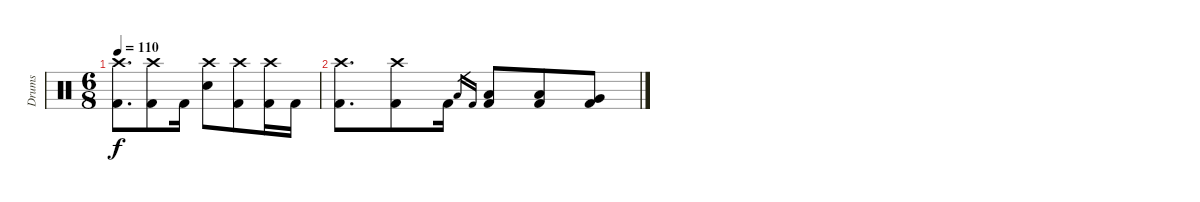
\track ("Drums" "Drums") {instrument percussion}
\staff {score}
\articulation defaults
\ts (6 8)
\tempo 110
\clef neutral
\ks c
("Crash high (hit)" "Kick (hit) 2").8{d dy f} ("Crash high (hit)" "Kick (hit) 2").8 "Kick (hit) 2".16 ("Crash high (hit)" "Electric Snare (hit)").8 ("Crash high (hit)" "Kick (hit) 2").8 ("Crash high (hit)" "Kick (hit) 2").16 "Kick (hit) 2".16 |
("Crash high (hit)" "Kick (hit) 2").8{d} ("Crash high (hit)" "Kick (hit) 2").8 "Kick (hit) 2".16 "Low Tom (hit)".16{gr} "Kick (hit) 2".16{gr} ("Low Tom (hit)" "Kick (hit) 2").8 ("Low Tom (hit)" "Kick (hit) 2").8 ("Very Low Tom (hit)" "Kick (hit) 2").8
